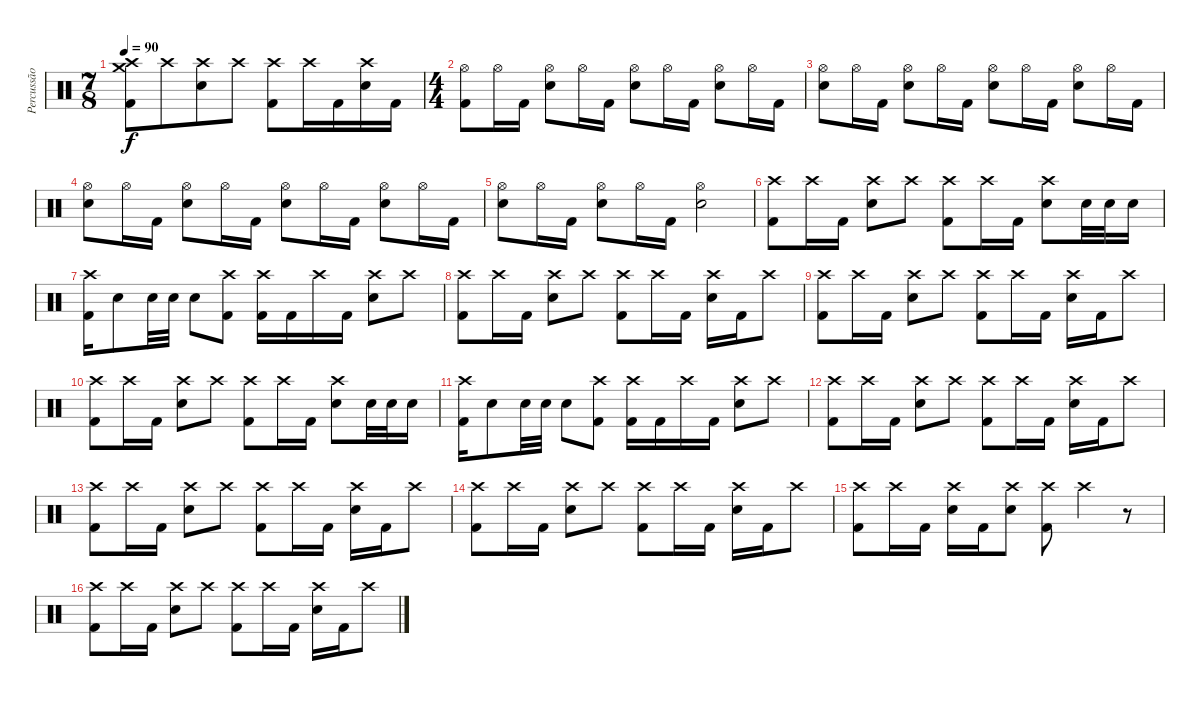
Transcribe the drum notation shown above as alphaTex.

\track ("Percussão" "Percussão") {instrument percussion}
\staff {score}
\articulation defaults
\ts (7 8)
\tempo 90
\clef neutral
\ks c
("Crash medium (hit)" "Crash high (hit)" "Kick (hit) 2").8{dy f} "Crash high (hit)".8 ("Crash high (hit)" "Electric Snare (hit)").8 "Crash high (hit)".8 ("Crash high (hit)" "Kick (hit) 2").8 "Crash high (hit)".16 "Kick (hit) 2".16 ("Crash high (hit)" "Electric Snare (hit)").16 "Kick (hit) 2".16 |
\ts (4 4)
("Hi-Hat (open)" "Kick (hit) 2").8 "Hi-Hat (open)".16 "Kick (hit) 2".16 ("Hi-Hat (open)" "Electric Snare (hit)").8 "Hi-Hat (open)".16 "Kick (hit) 2".16 ("Hi-Hat (open)" "Electric Snare (hit)").8 "Hi-Hat (open)".16 "Kick (hit) 2".16 ("Hi-Hat (open)" "Electric Snare (hit)").8 "Hi-Hat (open)".16 "Kick (hit) 2".16 |
("Hi-Hat (open)" "Electric Snare (hit)").8 "Hi-Hat (open)".16 "Kick (hit) 2".16 ("Hi-Hat (open)" "Electric Snare (hit)").8 "Hi-Hat (open)".16 "Kick (hit) 2".16 ("Hi-Hat (open)" "Electric Snare (hit)").8 "Hi-Hat (open)".16 "Kick (hit) 2".16 ("Hi-Hat (open)" "Electric Snare (hit)").8 "Hi-Hat (open)".16 "Kick (hit) 2".16 |
("Hi-Hat (open)" "Electric Snare (hit)").8 "Hi-Hat (open)".16 "Kick (hit) 2".16 ("Hi-Hat (open)" "Electric Snare (hit)").8 "Hi-Hat (open)".16 "Kick (hit) 2".16 ("Hi-Hat (open)" "Electric Snare (hit)").8 "Hi-Hat (open)".16 "Kick (hit) 2".16 ("Hi-Hat (open)" "Electric Snare (hit)").8 "Hi-Hat (open)".16 "Kick (hit) 2".16 |
("Hi-Hat (open)" "Electric Snare (hit)").8 "Hi-Hat (open)".16 "Kick (hit) 2".16 ("Hi-Hat (open)" "Electric Snare (hit)").8 "Hi-Hat (open)".16 "Kick (hit) 2".16 ("Hi-Hat (open)" "Electric Snare (hit)").2 |
("Crash high (hit)" "Kick (hit) 2").8 "Crash high (hit)".16 "Kick (hit) 2".16 ("Crash high (hit)" "Electric Snare (hit)").8 "Crash high (hit)".8 ("Crash high (hit)" "Kick (hit) 2").8 "Crash high (hit)".16 "Kick (hit) 2".16 ("Crash high (hit)" "Electric Snare (hit)").8 "Electric Snare (hit)".32 "Electric Snare (hit)".32 "Electric Snare (hit)".16 |
("Crash high (hit)" "Kick (hit) 2").16 "Electric Snare (hit)".8 "Electric Snare (hit)".32 "Electric Snare (hit)".32 "Electric Snare (hit)".8 ("Crash high (hit)" "Kick (hit) 2").8 ("Crash high (hit)" "Kick (hit) 2").16 "Kick (hit) 2".16 "Crash high (hit)".16 "Kick (hit) 2".16 ("Crash high (hit)" "Electric Snare (hit)").8 "Crash high (hit)".8 |
("Crash high (hit)" "Kick (hit) 2").8 "Crash high (hit)".16 "Kick (hit) 2".16 ("Crash high (hit)" "Electric Snare (hit)").8 "Crash high (hit)".8 ("Crash high (hit)" "Kick (hit) 2").8 "Crash high (hit)".16 "Kick (hit) 2".16 ("Crash high (hit)" "Electric Snare (hit)").16 "Kick (hit) 2".16 "Crash high (hit)".8 |
("Crash high (hit)" "Kick (hit) 2").8 "Crash high (hit)".16 "Kick (hit) 2".16 ("Crash high (hit)" "Electric Snare (hit)").8 "Crash high (hit)".8 ("Crash high (hit)" "Kick (hit) 2").8 "Crash high (hit)".16 "Kick (hit) 2".16 ("Crash high (hit)" "Electric Snare (hit)").16 "Kick (hit) 2".16 "Crash high (hit)".8 |
("Crash high (hit)" "Kick (hit) 2").8 "Crash high (hit)".16 "Kick (hit) 2".16 ("Crash high (hit)" "Electric Snare (hit)").8 "Crash high (hit)".8 ("Crash high (hit)" "Kick (hit) 2").8 "Crash high (hit)".16 "Kick (hit) 2".16 ("Crash high (hit)" "Electric Snare (hit)").8 "Electric Snare (hit)".32 "Electric Snare (hit)".32 "Electric Snare (hit)".16 |
("Crash high (hit)" "Kick (hit) 2").16 "Electric Snare (hit)".8 "Electric Snare (hit)".32 "Electric Snare (hit)".32 "Electric Snare (hit)".8 ("Crash high (hit)" "Kick (hit) 2").8 ("Crash high (hit)" "Kick (hit) 2").16 "Kick (hit) 2".16 "Crash high (hit)".16 "Kick (hit) 2".16 ("Crash high (hit)" "Electric Snare (hit)").8 "Crash high (hit)".8 |
("Crash high (hit)" "Kick (hit) 2").8 "Crash high (hit)".16 "Kick (hit) 2".16 ("Crash high (hit)" "Electric Snare (hit)").8 "Crash high (hit)".8 ("Crash high (hit)" "Kick (hit) 2").8 "Crash high (hit)".16 "Kick (hit) 2".16 ("Crash high (hit)" "Electric Snare (hit)").16 "Kick (hit) 2".16 "Crash high (hit)".8 |
("Crash high (hit)" "Kick (hit) 2").8 "Crash high (hit)".16 "Kick (hit) 2".16 ("Crash high (hit)" "Electric Snare (hit)").8 "Crash high (hit)".8 ("Crash high (hit)" "Kick (hit) 2").8 "Crash high (hit)".16 "Kick (hit) 2".16 ("Crash high (hit)" "Electric Snare (hit)").16 "Kick (hit) 2".16 "Crash high (hit)".8 |
("Crash high (hit)" "Kick (hit) 2").8 "Crash high (hit)".16 "Kick (hit) 2".16 ("Crash high (hit)" "Electric Snare (hit)").8 "Crash high (hit)".8 ("Crash high (hit)" "Kick (hit) 2").8 "Crash high (hit)".16 "Kick (hit) 2".16 ("Crash high (hit)" "Electric Snare (hit)").16 "Kick (hit) 2".16 "Crash high (hit)".8 |
("Crash high (hit)" "Kick (hit) 2").8 "Crash high (hit)".16 "Kick (hit) 2".16 ("Crash high (hit)" "Electric Snare (hit)").16 "Kick (hit) 2".16 ("Crash high (hit)" "Electric Snare (hit)").8 ("Crash high (hit)" "Kick (hit) 2").8 "Crash high (hit)".4 r.8 |
("Crash high (hit)" "Kick (hit) 2").8 "Crash high (hit)".16 "Kick (hit) 2".16 ("Crash high (hit)" "Electric Snare (hit)").8 "Crash high (hit)".8 ("Crash high (hit)" "Kick (hit) 2").8 "Crash high (hit)".16 "Kick (hit) 2".16 ("Crash high (hit)" "Electric Snare (hit)").16 "Kick (hit) 2".16 "Crash high (hit)".8
